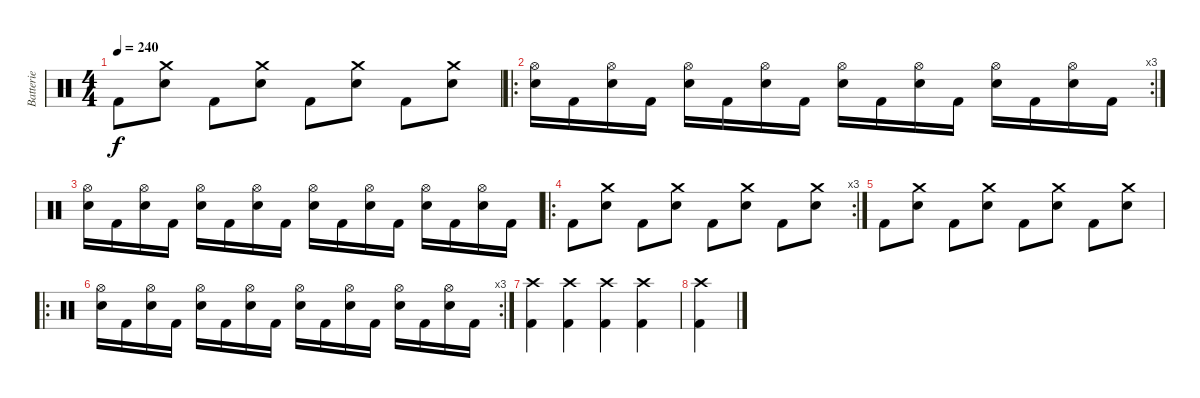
\track ("Batterie" "Batterie") {instrument percussion}
\staff {score}
\articulation defaults
\ts (4 4)
\tempo 240
\clef neutral
\ks c "Kick (hit) 2".8{dy f}
("Crash medium (hit)" "Snare (hit) 2").8 "Kick (hit) 2".8 ("Crash medium (hit)" "Snare (hit) 2").8 "Kick (hit) 2".8 ("Crash medium (hit)" "Snare (hit) 2").8 "Kick (hit) 2".8 ("Crash medium (hit)" "Snare (hit) 2").8 |
\ro
\rc 3
("Hi-Hat (open)" "Snare (hit) 2").16 "Kick (hit) 2".16 ("Hi-Hat (open)" "Snare (hit) 2").16 "Kick (hit) 2".16 ("Hi-Hat (open)" "Snare (hit) 2").16 "Kick (hit) 2".16 ("Hi-Hat (open)" "Snare (hit) 2").16 "Kick (hit) 2".16 ("Hi-Hat (open)" "Snare (hit) 2").16 "Kick (hit) 2".16 ("Hi-Hat (open)" "Snare (hit) 2").16 "Kick (hit) 2".16 ("Hi-Hat (open)" "Snare (hit) 2").16 "Kick (hit) 2".16 ("Hi-Hat (open)" "Snare (hit) 2").16 "Kick (hit) 2".16 |
("Hi-Hat (open)" "Snare (hit) 2").16 "Kick (hit) 2".16 ("Hi-Hat (open)" "Snare (hit) 2").16 "Kick (hit) 2".16 ("Hi-Hat (open)" "Snare (hit) 2").16 "Kick (hit) 2".16 ("Hi-Hat (open)" "Snare (hit) 2").16 "Kick (hit) 2".16 ("Hi-Hat (open)" "Snare (hit) 2").16 "Kick (hit) 2".16 ("Hi-Hat (open)" "Snare (hit) 2").16 "Kick (hit) 2".16 ("Hi-Hat (open)" "Snare (hit) 2").16 "Kick (hit) 2".16 ("Hi-Hat (open)" "Snare (hit) 2").16 "Kick (hit) 2".16 |
\ro
\rc 3 "Kick (hit) 2".8
("Crash medium (hit)" "Snare (hit) 2").8 "Kick (hit) 2".8 ("Crash medium (hit)" "Snare (hit) 2").8 "Kick (hit) 2".8 ("Crash medium (hit)" "Snare (hit) 2").8 "Kick (hit) 2".8 ("Crash medium (hit)" "Snare (hit) 2").8 |
"Kick (hit) 2".8 ("Crash medium (hit)" "Snare (hit) 2").8 "Kick (hit) 2".8 ("Crash medium (hit)" "Snare (hit) 2").8 "Kick (hit) 2".8 ("Crash medium (hit)" "Snare (hit) 2").8 "Kick (hit) 2".8 ("Crash medium (hit)" "Snare (hit) 2").8 |
\ro
\rc 3
("Hi-Hat (open)" "Snare (hit) 2").16 "Kick (hit) 2".16 ("Hi-Hat (open)" "Snare (hit) 2").16 "Kick (hit) 2".16 ("Hi-Hat (open)" "Snare (hit) 2").16 "Kick (hit) 2".16 ("Hi-Hat (open)" "Snare (hit) 2").16 "Kick (hit) 2".16 ("Hi-Hat (open)" "Snare (hit) 2").16 "Kick (hit) 2".16 ("Hi-Hat (open)" "Snare (hit) 2").16 "Kick (hit) 2".16 ("Hi-Hat (open)" "Snare (hit) 2").16 "Kick (hit) 2".16 ("Hi-Hat (open)" "Snare (hit) 2").16 "Kick (hit) 2".16 |
("Crash high (hit)" "Kick (hit) 2").4 ("Crash high (hit)" "Kick (hit) 2").4 ("Crash high (hit)" "Kick (hit) 2").4 ("Crash high (hit)" "Kick (hit) 2").4 |
("Crash high (hit)" "Kick (hit) 2").4
